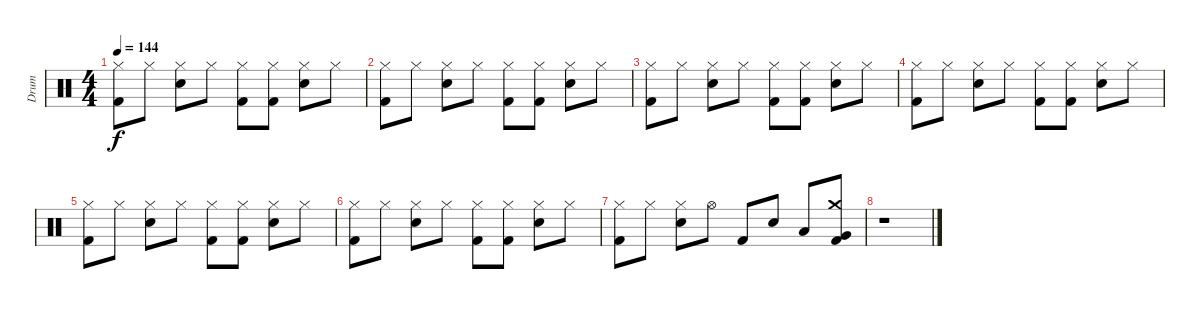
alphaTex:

\track ("Drum" "Drum") {instrument percussion}
\staff {score}
\articulation defaults
\ts (4 4)
\tempo 144
\clef neutral
\ks c
("Hi-Hat (closed)" "Kick (hit) 2").8{dy f} "Hi-Hat (closed)".8 ("Hi-Hat (closed)" "Electric Snare (hit)").8 "Hi-Hat (closed)".8 ("Hi-Hat (closed)" "Kick (hit) 2").8 ("Hi-Hat (closed)" "Kick (hit) 2").8 ("Hi-Hat (closed)" "Electric Snare (hit)").8 "Hi-Hat (closed)".8 |
("Hi-Hat (closed)" "Kick (hit) 2").8 "Hi-Hat (closed)".8 ("Hi-Hat (closed)" "Electric Snare (hit)").8 "Hi-Hat (closed)".8 ("Hi-Hat (closed)" "Kick (hit) 2").8 ("Hi-Hat (closed)" "Kick (hit) 2").8 ("Hi-Hat (closed)" "Electric Snare (hit)").8 "Hi-Hat (closed)".8 |
("Hi-Hat (closed)" "Kick (hit) 2").8 "Hi-Hat (closed)".8 ("Hi-Hat (closed)" "Electric Snare (hit)").8 "Hi-Hat (closed)".8 ("Hi-Hat (closed)" "Kick (hit) 2").8 ("Hi-Hat (closed)" "Kick (hit) 2").8 ("Hi-Hat (closed)" "Electric Snare (hit)").8 "Hi-Hat (closed)".8 |
("Hi-Hat (closed)" "Kick (hit) 2").8 "Hi-Hat (closed)".8 ("Hi-Hat (closed)" "Electric Snare (hit)").8 "Hi-Hat (closed)".8 ("Hi-Hat (closed)" "Kick (hit) 2").8 ("Hi-Hat (closed)" "Kick (hit) 2").8 ("Hi-Hat (closed)" "Electric Snare (hit)").8 "Hi-Hat (closed)".8 |
("Hi-Hat (closed)" "Kick (hit) 2").8 "Hi-Hat (closed)".8 ("Hi-Hat (closed)" "Electric Snare (hit)").8 "Hi-Hat (closed)".8 ("Hi-Hat (closed)" "Kick (hit) 2").8 ("Hi-Hat (closed)" "Kick (hit) 2").8 ("Hi-Hat (closed)" "Electric Snare (hit)").8 "Hi-Hat (closed)".8 |
("Hi-Hat (closed)" "Kick (hit) 2").8 "Hi-Hat (closed)".8 ("Hi-Hat (closed)" "Electric Snare (hit)").8 "Hi-Hat (closed)".8 ("Hi-Hat (closed)" "Kick (hit) 2").8 ("Hi-Hat (closed)" "Kick (hit) 2").8 ("Hi-Hat (closed)" "Electric Snare (hit)").8 "Hi-Hat (closed)".8 |
("Hi-Hat (closed)" "Kick (hit) 2").8 "Hi-Hat (closed)".8 ("Hi-Hat (closed)" "Electric Snare (hit)").8 "Hi-Hat (open)".8 "Kick (hit) 2".8 "Electric Snare (hit)".8 "Low Tom (hit)".8 ("Crash medium (hit)" "Very Low Tom (hit)" "Kick (hit) 2").8 |
r.1
